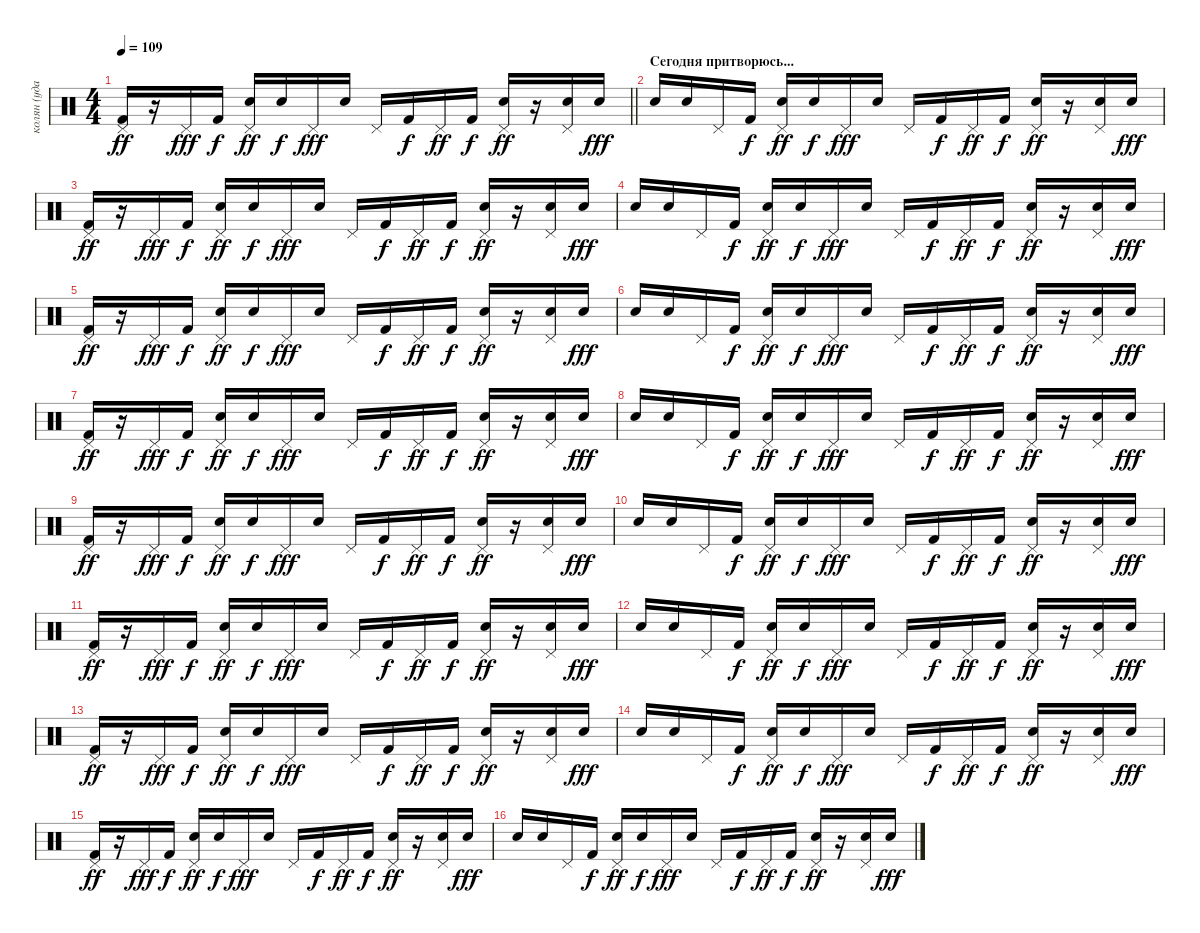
\track ("колян (ударные) v2.0" "колян (уда") {instrument percussion}
\staff
\articulation defaults
\ts (4 4)
\tempo 109
\clef neutral
\barLineRight lightlight
\ks c
("Pedal Hi-Hat (hit)" "Kick (hit) 2").16{dy ff} r.16 "Pedal Hi-Hat (hit)".16{dy fff} "Kick (hit) 2".16{dy f} ("Snare (hit) 2" "Pedal Hi-Hat (hit)").16{dy ff} "Snare (hit) 2".16{dy f} "Pedal Hi-Hat (hit)".16{dy fff} "Snare (hit) 2".16 "Pedal Hi-Hat (hit)".16 "Kick (hit) 2".16{dy f} "Pedal Hi-Hat (hit)".16{dy ff} "Kick (hit) 2".16{dy f} ("Snare (hit) 2" "Pedal Hi-Hat (hit)").16{dy ff} r.16 ("Snare (hit) 2" "Pedal Hi-Hat (hit)").16 "Snare (hit) 2".16{dy fff} |
\section ("" "Сегодня притворюсь...")
"Snare (hit) 2".16 "Snare (hit) 2".16 "Pedal Hi-Hat (hit)".16 "Kick (hit) 2".16{dy f} ("Snare (hit) 2" "Pedal Hi-Hat (hit)").16{dy ff} "Snare (hit) 2".16{dy f} "Pedal Hi-Hat (hit)".16{dy fff} "Snare (hit) 2".16 "Pedal Hi-Hat (hit)".16 "Kick (hit) 2".16{dy f} "Pedal Hi-Hat (hit)".16{dy ff} "Kick (hit) 2".16{dy f} ("Snare (hit) 2" "Pedal Hi-Hat (hit)").16{dy ff} r.16 ("Snare (hit) 2" "Pedal Hi-Hat (hit)").16 "Snare (hit) 2".16{dy fff} |
("Pedal Hi-Hat (hit)" "Kick (hit) 2").16{dy ff} r.16 "Pedal Hi-Hat (hit)".16{dy fff} "Kick (hit) 2".16{dy f} ("Snare (hit) 2" "Pedal Hi-Hat (hit)").16{dy ff} "Snare (hit) 2".16{dy f} "Pedal Hi-Hat (hit)".16{dy fff} "Snare (hit) 2".16 "Pedal Hi-Hat (hit)".16 "Kick (hit) 2".16{dy f} "Pedal Hi-Hat (hit)".16{dy ff} "Kick (hit) 2".16{dy f} ("Snare (hit) 2" "Pedal Hi-Hat (hit)").16{dy ff} r.16 ("Snare (hit) 2" "Pedal Hi-Hat (hit)").16 "Snare (hit) 2".16{dy fff} |
"Snare (hit) 2".16 "Snare (hit) 2".16 "Pedal Hi-Hat (hit)".16 "Kick (hit) 2".16{dy f} ("Snare (hit) 2" "Pedal Hi-Hat (hit)").16{dy ff} "Snare (hit) 2".16{dy f} "Pedal Hi-Hat (hit)".16{dy fff} "Snare (hit) 2".16 "Pedal Hi-Hat (hit)".16 "Kick (hit) 2".16{dy f} "Pedal Hi-Hat (hit)".16{dy ff} "Kick (hit) 2".16{dy f} ("Snare (hit) 2" "Pedal Hi-Hat (hit)").16{dy ff} r.16 ("Snare (hit) 2" "Pedal Hi-Hat (hit)").16 "Snare (hit) 2".16{dy fff} |
("Pedal Hi-Hat (hit)" "Kick (hit) 2").16{dy ff} r.16 "Pedal Hi-Hat (hit)".16{dy fff} "Kick (hit) 2".16{dy f} ("Snare (hit) 2" "Pedal Hi-Hat (hit)").16{dy ff} "Snare (hit) 2".16{dy f} "Pedal Hi-Hat (hit)".16{dy fff} "Snare (hit) 2".16 "Pedal Hi-Hat (hit)".16 "Kick (hit) 2".16{dy f} "Pedal Hi-Hat (hit)".16{dy ff} "Kick (hit) 2".16{dy f} ("Snare (hit) 2" "Pedal Hi-Hat (hit)").16{dy ff} r.16 ("Snare (hit) 2" "Pedal Hi-Hat (hit)").16 "Snare (hit) 2".16{dy fff} |
"Snare (hit) 2".16 "Snare (hit) 2".16 "Pedal Hi-Hat (hit)".16 "Kick (hit) 2".16{dy f} ("Snare (hit) 2" "Pedal Hi-Hat (hit)").16{dy ff} "Snare (hit) 2".16{dy f} "Pedal Hi-Hat (hit)".16{dy fff} "Snare (hit) 2".16 "Pedal Hi-Hat (hit)".16 "Kick (hit) 2".16{dy f} "Pedal Hi-Hat (hit)".16{dy ff} "Kick (hit) 2".16{dy f} ("Snare (hit) 2" "Pedal Hi-Hat (hit)").16{dy ff} r.16 ("Snare (hit) 2" "Pedal Hi-Hat (hit)").16 "Snare (hit) 2".16{dy fff} |
("Pedal Hi-Hat (hit)" "Kick (hit) 2").16{dy ff} r.16 "Pedal Hi-Hat (hit)".16{dy fff} "Kick (hit) 2".16{dy f} ("Snare (hit) 2" "Pedal Hi-Hat (hit)").16{dy ff} "Snare (hit) 2".16{dy f} "Pedal Hi-Hat (hit)".16{dy fff} "Snare (hit) 2".16 "Pedal Hi-Hat (hit)".16 "Kick (hit) 2".16{dy f} "Pedal Hi-Hat (hit)".16{dy ff} "Kick (hit) 2".16{dy f} ("Snare (hit) 2" "Pedal Hi-Hat (hit)").16{dy ff} r.16 ("Snare (hit) 2" "Pedal Hi-Hat (hit)").16 "Snare (hit) 2".16{dy fff} |
"Snare (hit) 2".16 "Snare (hit) 2".16 "Pedal Hi-Hat (hit)".16 "Kick (hit) 2".16{dy f} ("Snare (hit) 2" "Pedal Hi-Hat (hit)").16{dy ff} "Snare (hit) 2".16{dy f} "Pedal Hi-Hat (hit)".16{dy fff} "Snare (hit) 2".16 "Pedal Hi-Hat (hit)".16 "Kick (hit) 2".16{dy f} "Pedal Hi-Hat (hit)".16{dy ff} "Kick (hit) 2".16{dy f} ("Snare (hit) 2" "Pedal Hi-Hat (hit)").16{dy ff} r.16 ("Snare (hit) 2" "Pedal Hi-Hat (hit)").16 "Snare (hit) 2".16{dy fff} |
("Pedal Hi-Hat (hit)" "Kick (hit) 2").16{dy ff} r.16 "Pedal Hi-Hat (hit)".16{dy fff} "Kick (hit) 2".16{dy f} ("Snare (hit) 2" "Pedal Hi-Hat (hit)").16{dy ff} "Snare (hit) 2".16{dy f} "Pedal Hi-Hat (hit)".16{dy fff} "Snare (hit) 2".16 "Pedal Hi-Hat (hit)".16 "Kick (hit) 2".16{dy f} "Pedal Hi-Hat (hit)".16{dy ff} "Kick (hit) 2".16{dy f} ("Snare (hit) 2" "Pedal Hi-Hat (hit)").16{dy ff} r.16 ("Snare (hit) 2" "Pedal Hi-Hat (hit)").16 "Snare (hit) 2".16{dy fff} |
"Snare (hit) 2".16 "Snare (hit) 2".16 "Pedal Hi-Hat (hit)".16 "Kick (hit) 2".16{dy f} ("Snare (hit) 2" "Pedal Hi-Hat (hit)").16{dy ff} "Snare (hit) 2".16{dy f} "Pedal Hi-Hat (hit)".16{dy fff} "Snare (hit) 2".16 "Pedal Hi-Hat (hit)".16 "Kick (hit) 2".16{dy f} "Pedal Hi-Hat (hit)".16{dy ff} "Kick (hit) 2".16{dy f} ("Snare (hit) 2" "Pedal Hi-Hat (hit)").16{dy ff} r.16 ("Snare (hit) 2" "Pedal Hi-Hat (hit)").16 "Snare (hit) 2".16{dy fff} |
("Pedal Hi-Hat (hit)" "Kick (hit) 2").16{dy ff} r.16 "Pedal Hi-Hat (hit)".16{dy fff} "Kick (hit) 2".16{dy f} ("Snare (hit) 2" "Pedal Hi-Hat (hit)").16{dy ff} "Snare (hit) 2".16{dy f} "Pedal Hi-Hat (hit)".16{dy fff} "Snare (hit) 2".16 "Pedal Hi-Hat (hit)".16 "Kick (hit) 2".16{dy f} "Pedal Hi-Hat (hit)".16{dy ff} "Kick (hit) 2".16{dy f} ("Snare (hit) 2" "Pedal Hi-Hat (hit)").16{dy ff} r.16 ("Snare (hit) 2" "Pedal Hi-Hat (hit)").16 "Snare (hit) 2".16{dy fff} |
"Snare (hit) 2".16 "Snare (hit) 2".16 "Pedal Hi-Hat (hit)".16 "Kick (hit) 2".16{dy f} ("Snare (hit) 2" "Pedal Hi-Hat (hit)").16{dy ff} "Snare (hit) 2".16{dy f} "Pedal Hi-Hat (hit)".16{dy fff} "Snare (hit) 2".16 "Pedal Hi-Hat (hit)".16 "Kick (hit) 2".16{dy f} "Pedal Hi-Hat (hit)".16{dy ff} "Kick (hit) 2".16{dy f} ("Snare (hit) 2" "Pedal Hi-Hat (hit)").16{dy ff} r.16 ("Snare (hit) 2" "Pedal Hi-Hat (hit)").16 "Snare (hit) 2".16{dy fff} |
("Pedal Hi-Hat (hit)" "Kick (hit) 2").16{dy ff} r.16 "Pedal Hi-Hat (hit)".16{dy fff} "Kick (hit) 2".16{dy f} ("Snare (hit) 2" "Pedal Hi-Hat (hit)").16{dy ff} "Snare (hit) 2".16{dy f} "Pedal Hi-Hat (hit)".16{dy fff} "Snare (hit) 2".16 "Pedal Hi-Hat (hit)".16 "Kick (hit) 2".16{dy f} "Pedal Hi-Hat (hit)".16{dy ff} "Kick (hit) 2".16{dy f} ("Snare (hit) 2" "Pedal Hi-Hat (hit)").16{dy ff} r.16 ("Snare (hit) 2" "Pedal Hi-Hat (hit)").16 "Snare (hit) 2".16{dy fff} |
"Snare (hit) 2".16 "Snare (hit) 2".16 "Pedal Hi-Hat (hit)".16 "Kick (hit) 2".16{dy f} ("Snare (hit) 2" "Pedal Hi-Hat (hit)").16{dy ff} "Snare (hit) 2".16{dy f} "Pedal Hi-Hat (hit)".16{dy fff} "Snare (hit) 2".16 "Pedal Hi-Hat (hit)".16 "Kick (hit) 2".16{dy f} "Pedal Hi-Hat (hit)".16{dy ff} "Kick (hit) 2".16{dy f} ("Snare (hit) 2" "Pedal Hi-Hat (hit)").16{dy ff} r.16 ("Snare (hit) 2" "Pedal Hi-Hat (hit)").16 "Snare (hit) 2".16{dy fff} |
("Pedal Hi-Hat (hit)" "Kick (hit) 2").16{dy ff} r.16 "Pedal Hi-Hat (hit)".16{dy fff} "Kick (hit) 2".16{dy f} ("Snare (hit) 2" "Pedal Hi-Hat (hit)").16{dy ff} "Snare (hit) 2".16{dy f} "Pedal Hi-Hat (hit)".16{dy fff} "Snare (hit) 2".16 "Pedal Hi-Hat (hit)".16 "Kick (hit) 2".16{dy f} "Pedal Hi-Hat (hit)".16{dy ff} "Kick (hit) 2".16{dy f} ("Snare (hit) 2" "Pedal Hi-Hat (hit)").16{dy ff} r.16 ("Snare (hit) 2" "Pedal Hi-Hat (hit)").16 "Snare (hit) 2".16{dy fff} |
"Snare (hit) 2".16 "Snare (hit) 2".16 "Pedal Hi-Hat (hit)".16 "Kick (hit) 2".16{dy f} ("Snare (hit) 2" "Pedal Hi-Hat (hit)").16{dy ff} "Snare (hit) 2".16{dy f} "Pedal Hi-Hat (hit)".16{dy fff} "Snare (hit) 2".16 "Pedal Hi-Hat (hit)".16 "Kick (hit) 2".16{dy f} "Pedal Hi-Hat (hit)".16{dy ff} "Kick (hit) 2".16{dy f} ("Snare (hit) 2" "Pedal Hi-Hat (hit)").16{dy ff} r.16 ("Snare (hit) 2" "Pedal Hi-Hat (hit)").16 "Snare (hit) 2".16{dy fff}
